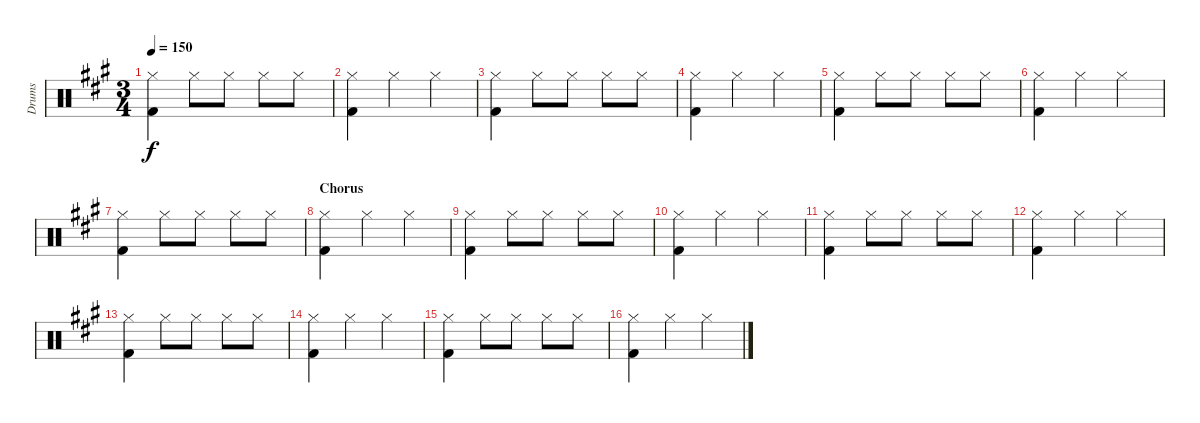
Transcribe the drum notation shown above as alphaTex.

\track ("Drums" "Drums") {instrument percussion}
\staff {score}
\articulation defaults
\ts (3 4)
\tempo 150
\clef neutral
\ks f#minor
("Kick (hit) 2" "Hi-Hat (closed)").4{dy f} "Hi-Hat (closed)".8 "Hi-Hat (closed)".8 "Hi-Hat (closed)".8 "Hi-Hat (closed)".8 |
("Kick (hit) 2" "Hi-Hat (closed)").4 "Hi-Hat (closed)".4 "Hi-Hat (closed)".4 |
("Kick (hit) 2" "Hi-Hat (closed)").4 "Hi-Hat (closed)".8 "Hi-Hat (closed)".8 "Hi-Hat (closed)".8 "Hi-Hat (closed)".8 |
("Kick (hit) 2" "Hi-Hat (closed)").4 "Hi-Hat (closed)".4 "Hi-Hat (closed)".4 |
("Kick (hit) 2" "Hi-Hat (closed)").4 "Hi-Hat (closed)".8 "Hi-Hat (closed)".8 "Hi-Hat (closed)".8 "Hi-Hat (closed)".8 |
("Kick (hit) 2" "Hi-Hat (closed)").4 "Hi-Hat (closed)".4 "Hi-Hat (closed)".4 |
("Kick (hit) 2" "Hi-Hat (closed)").4 "Hi-Hat (closed)".8 "Hi-Hat (closed)".8 "Hi-Hat (closed)".8 "Hi-Hat (closed)".8 |
\section ("" "Chorus")
("Kick (hit) 2" "Hi-Hat (closed)").4 "Hi-Hat (closed)".4 "Hi-Hat (closed)".4 |
("Kick (hit) 2" "Hi-Hat (closed)").4 "Hi-Hat (closed)".8 "Hi-Hat (closed)".8 "Hi-Hat (closed)".8 "Hi-Hat (closed)".8 |
("Kick (hit) 2" "Hi-Hat (closed)").4 "Hi-Hat (closed)".4 "Hi-Hat (closed)".4 |
("Kick (hit) 2" "Hi-Hat (closed)").4 "Hi-Hat (closed)".8 "Hi-Hat (closed)".8 "Hi-Hat (closed)".8 "Hi-Hat (closed)".8 |
("Kick (hit) 2" "Hi-Hat (closed)").4 "Hi-Hat (closed)".4 "Hi-Hat (closed)".4 |
("Kick (hit) 2" "Hi-Hat (closed)").4 "Hi-Hat (closed)".8 "Hi-Hat (closed)".8 "Hi-Hat (closed)".8 "Hi-Hat (closed)".8 |
("Kick (hit) 2" "Hi-Hat (closed)").4 "Hi-Hat (closed)".4 "Hi-Hat (closed)".4 |
("Kick (hit) 2" "Hi-Hat (closed)").4 "Hi-Hat (closed)".8 "Hi-Hat (closed)".8 "Hi-Hat (closed)".8 "Hi-Hat (closed)".8 |
("Kick (hit) 2" "Hi-Hat (closed)").4 "Hi-Hat (closed)".4 "Hi-Hat (closed)".4
